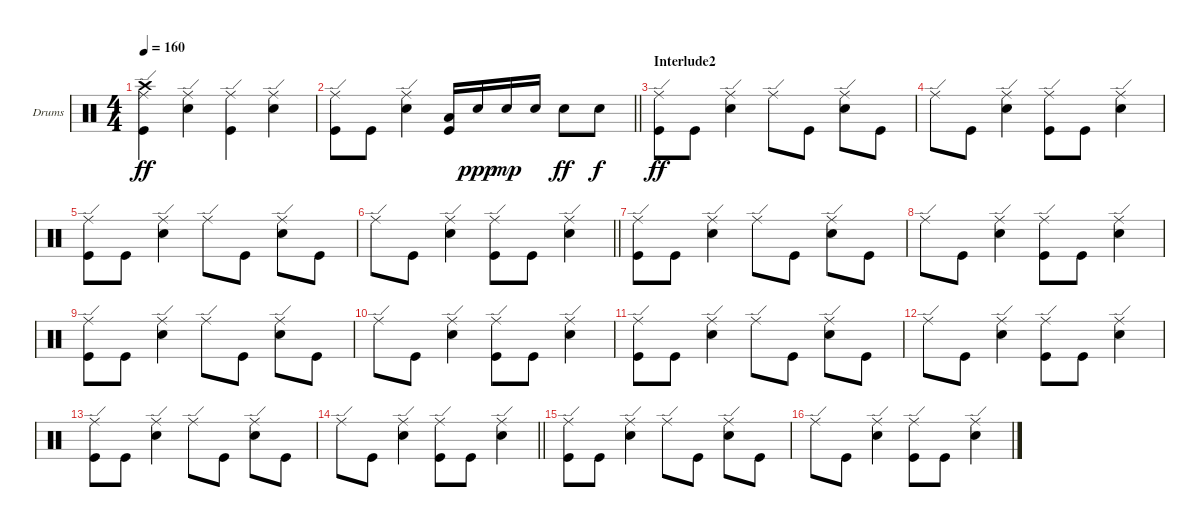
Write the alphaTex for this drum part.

\bracketExtendMode groupsimilarinstruments
\firstSystemTrackNameOrientation horizontal
\otherSystemsTrackNameOrientation horizontal
\track ("Jean-Paul Gaster" "Drums") {instrument percussion}
\staff {score}
\articulation defaults
\ts (4 4)
\tempo 160
\clef neutral
\ks c
("Ride (edge)" "Crash high (hit)" "Kick (hit)").4{dy ff} ("Ride (edge)" "Snare (hit) 2").4 ("Ride (edge)" "Kick (hit)").4 ("Ride (edge)" "Snare (hit) 2").4 |
\barLineRight lightlight
("Ride (edge)" "Kick (hit)").8 "Kick (hit)".8 ("Ride (edge)" "Snare (hit) 2").4 ("Low Tom (hit)" "Kick (hit)").16 "Snare (hit) 2".16{dy ppp} "Snare (hit) 2".16{dy mp} "Snare (hit) 2".16 "Snare (hit) 2".8{dy ff} "Snare (hit) 2".8{dy f} |
\section ("" "Interlude2")
("Ride (edge)" "Kick (hit)").8{dy ff} "Kick (hit)".8 ("Ride (edge)" "Snare (hit) 2").4 "Ride (edge)".8 "Kick (hit)".8 ("Ride (edge)" "Snare (hit) 2").8 "Kick (hit)".8 |
"Ride (edge)".8 "Kick (hit)".8 ("Ride (edge)" "Snare (hit) 2").4 ("Ride (edge)" "Kick (hit)").8 "Kick (hit)".8 ("Ride (edge)" "Snare (hit) 2").4 |
("Ride (edge)" "Kick (hit)").8 "Kick (hit)".8 ("Ride (edge)" "Snare (hit) 2").4 "Ride (edge)".8 "Kick (hit)".8 ("Ride (edge)" "Snare (hit) 2").8 "Kick (hit)".8 |
\barLineRight lightlight "Ride (edge)".8 "Kick (hit)".8
("Ride (edge)" "Snare (hit) 2").4 ("Ride (edge)" "Kick (hit)").8 "Kick (hit)".8 ("Ride (edge)" "Snare (hit) 2").4 |
("Ride (edge)" "Kick (hit)").8 "Kick (hit)".8 ("Ride (edge)" "Snare (hit) 2").4 "Ride (edge)".8 "Kick (hit)".8 ("Ride (edge)" "Snare (hit) 2").8 "Kick (hit)".8 |
"Ride (edge)".8 "Kick (hit)".8 ("Ride (edge)" "Snare (hit) 2").4 ("Ride (edge)" "Kick (hit)").8 "Kick (hit)".8 ("Ride (edge)" "Snare (hit) 2").4 |
("Ride (edge)" "Kick (hit)").8 "Kick (hit)".8 ("Ride (edge)" "Snare (hit) 2").4 "Ride (edge)".8 "Kick (hit)".8 ("Ride (edge)" "Snare (hit) 2").8 "Kick (hit)".8 |
"Ride (edge)".8 "Kick (hit)".8 ("Ride (edge)" "Snare (hit) 2").4 ("Ride (edge)" "Kick (hit)").8 "Kick (hit)".8 ("Ride (edge)" "Snare (hit) 2").4 |
("Ride (edge)" "Kick (hit)").8 "Kick (hit)".8 ("Ride (edge)" "Snare (hit) 2").4 "Ride (edge)".8 "Kick (hit)".8 ("Ride (edge)" "Snare (hit) 2").8 "Kick (hit)".8 |
"Ride (edge)".8 "Kick (hit)".8 ("Ride (edge)" "Snare (hit) 2").4 ("Ride (edge)" "Kick (hit)").8 "Kick (hit)".8 ("Ride (edge)" "Snare (hit) 2").4 |
("Ride (edge)" "Kick (hit)").8 "Kick (hit)".8 ("Ride (edge)" "Snare (hit) 2").4 "Ride (edge)".8 "Kick (hit)".8 ("Ride (edge)" "Snare (hit) 2").8 "Kick (hit)".8 |
\barLineRight lightlight "Ride (edge)".8 "Kick (hit)".8
("Ride (edge)" "Snare (hit) 2").4 ("Ride (edge)" "Kick (hit)").8 "Kick (hit)".8 ("Ride (edge)" "Snare (hit) 2").4 |
("Ride (edge)" "Kick (hit)").8 "Kick (hit)".8 ("Ride (edge)" "Snare (hit) 2").4 "Ride (edge)".8 "Kick (hit)".8 ("Ride (edge)" "Snare (hit) 2").8 "Kick (hit)".8 |
"Ride (edge)".8 "Kick (hit)".8 ("Ride (edge)" "Snare (hit) 2").4 ("Ride (edge)" "Kick (hit)").8 "Kick (hit)".8 ("Ride (edge)" "Snare (hit) 2").4
